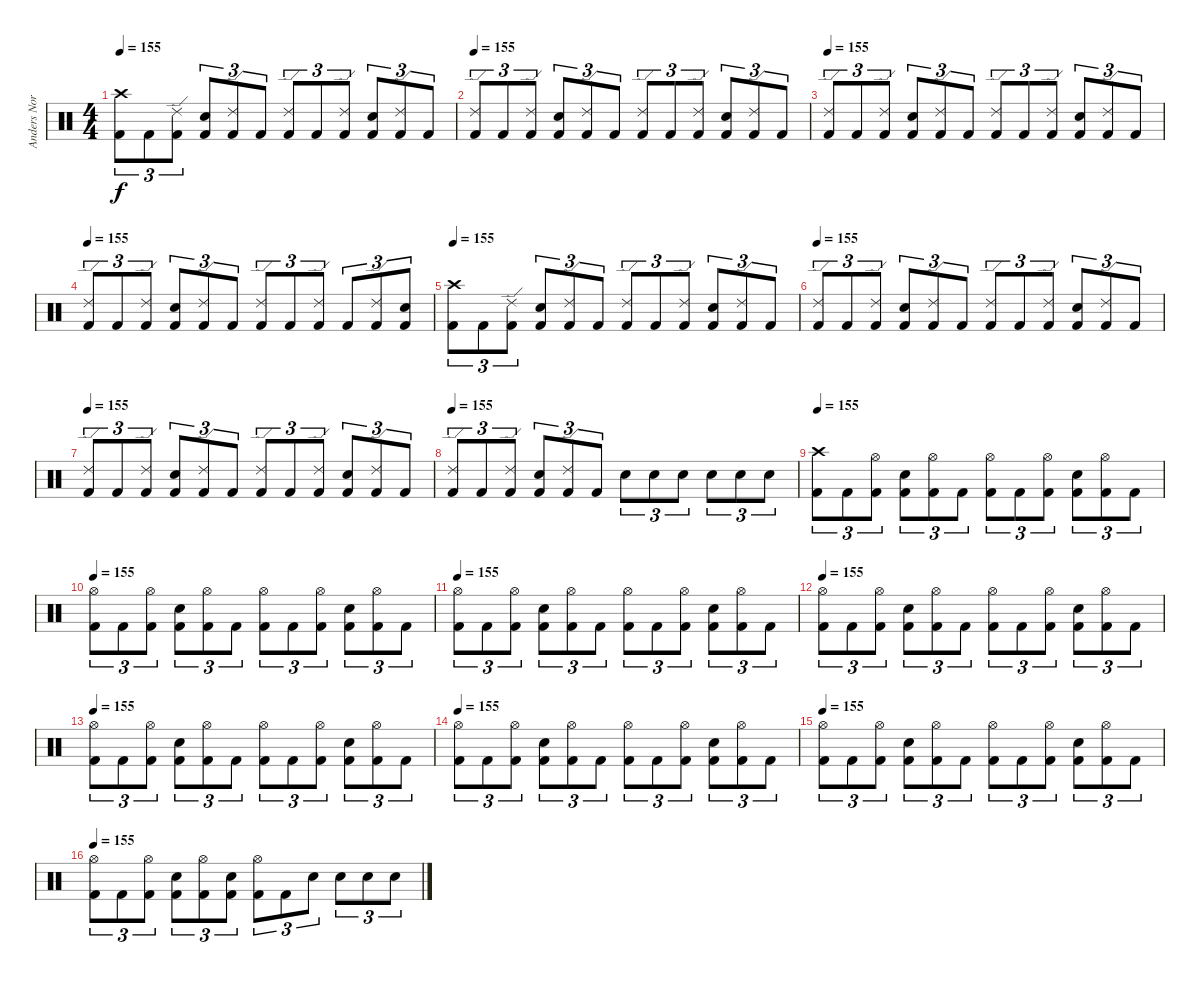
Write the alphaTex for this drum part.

\track ("Anders Nordin" "Anders Nor") {instrument percussion}
\staff {score}
\articulation defaults
\ts (4 4)
\tempo 155
\clef neutral
\ks c
("Kick (hit) 2" "Crash high (hit)").8{tu (3 2) dy f} "Kick (hit) 2".8{tu (3 2)} ("Kick (hit) 2" "Ride (edge) 2").8{tu (3 2)} ("Kick (hit) 2" "Electric Snare (hit)").8{tu (3 2)} ("Kick (hit) 2" "Ride (edge) 2").8{tu (3 2)} "Kick (hit) 2".8{tu (3 2)} ("Kick (hit) 2" "Ride (edge) 2").8{tu (3 2)} "Kick (hit) 2".8{tu (3 2)} ("Kick (hit) 2" "Ride (edge) 2").8{tu (3 2)} ("Kick (hit) 2" "Electric Snare (hit)").8{tu (3 2)} ("Kick (hit) 2" "Ride (edge) 2").8{tu (3 2)} "Kick (hit) 2".8{tu (3 2)} |
\tempo 155
("Kick (hit) 2" "Ride (edge) 2").8{tu (3 2)} "Kick (hit) 2".8{tu (3 2)} ("Kick (hit) 2" "Ride (edge) 2").8{tu (3 2)} ("Kick (hit) 2" "Electric Snare (hit)").8{tu (3 2)} ("Kick (hit) 2" "Ride (edge) 2").8{tu (3 2)} "Kick (hit) 2".8{tu (3 2)} ("Kick (hit) 2" "Ride (edge) 2").8{tu (3 2)} "Kick (hit) 2".8{tu (3 2)} ("Kick (hit) 2" "Ride (edge) 2").8{tu (3 2)} ("Kick (hit) 2" "Electric Snare (hit)").8{tu (3 2)} ("Kick (hit) 2" "Ride (edge) 2").8{tu (3 2)} "Kick (hit) 2".8{tu (3 2)} |
\tempo 155
("Kick (hit) 2" "Ride (edge) 2").8{tu (3 2)} "Kick (hit) 2".8{tu (3 2)} ("Kick (hit) 2" "Ride (edge) 2").8{tu (3 2)} ("Kick (hit) 2" "Electric Snare (hit)").8{tu (3 2)} ("Kick (hit) 2" "Ride (edge) 2").8{tu (3 2)} "Kick (hit) 2".8{tu (3 2)} ("Kick (hit) 2" "Ride (edge) 2").8{tu (3 2)} "Kick (hit) 2".8{tu (3 2)} ("Kick (hit) 2" "Ride (edge) 2").8{tu (3 2)} ("Kick (hit) 2" "Electric Snare (hit)").8{tu (3 2)} ("Kick (hit) 2" "Ride (edge) 2").8{tu (3 2)} "Kick (hit) 2".8{tu (3 2)} |
\tempo 155
("Kick (hit) 2" "Ride (edge) 2").8{tu (3 2)} "Kick (hit) 2".8{tu (3 2)} ("Kick (hit) 2" "Ride (edge) 2").8{tu (3 2)} ("Kick (hit) 2" "Electric Snare (hit)").8{tu (3 2)} ("Kick (hit) 2" "Ride (edge) 2").8{tu (3 2)} "Kick (hit) 2".8{tu (3 2)} ("Kick (hit) 2" "Ride (edge) 2").8{tu (3 2)} "Kick (hit) 2".8{tu (3 2)} ("Kick (hit) 2" "Ride (edge) 2").8{tu (3 2)} "Kick (hit) 2".8{tu (3 2)} ("Kick (hit) 2" "Ride (edge) 2").8{tu (3 2)} ("Kick (hit) 2" "Electric Snare (hit)").8{tu (3 2)} |
\tempo 155
("Kick (hit) 2" "Crash high (hit)").8{tu (3 2)} "Kick (hit) 2".8{tu (3 2)} ("Kick (hit) 2" "Ride (edge) 2").8{tu (3 2)} ("Kick (hit) 2" "Electric Snare (hit)").8{tu (3 2)} ("Kick (hit) 2" "Ride (edge) 2").8{tu (3 2)} "Kick (hit) 2".8{tu (3 2)} ("Kick (hit) 2" "Ride (edge) 2").8{tu (3 2)} "Kick (hit) 2".8{tu (3 2)} ("Kick (hit) 2" "Ride (edge) 2").8{tu (3 2)} ("Kick (hit) 2" "Electric Snare (hit)").8{tu (3 2)} ("Kick (hit) 2" "Ride (edge) 2").8{tu (3 2)} "Kick (hit) 2".8{tu (3 2)} |
\tempo 155
("Kick (hit) 2" "Ride (edge) 2").8{tu (3 2)} "Kick (hit) 2".8{tu (3 2)} ("Kick (hit) 2" "Ride (edge) 2").8{tu (3 2)} ("Kick (hit) 2" "Electric Snare (hit)").8{tu (3 2)} ("Kick (hit) 2" "Ride (edge) 2").8{tu (3 2)} "Kick (hit) 2".8{tu (3 2)} ("Kick (hit) 2" "Ride (edge) 2").8{tu (3 2)} "Kick (hit) 2".8{tu (3 2)} ("Kick (hit) 2" "Ride (edge) 2").8{tu (3 2)} ("Kick (hit) 2" "Electric Snare (hit)").8{tu (3 2)} ("Kick (hit) 2" "Ride (edge) 2").8{tu (3 2)} "Kick (hit) 2".8{tu (3 2)} |
\tempo 155
("Kick (hit) 2" "Ride (edge) 2").8{tu (3 2)} "Kick (hit) 2".8{tu (3 2)} ("Kick (hit) 2" "Ride (edge) 2").8{tu (3 2)} ("Kick (hit) 2" "Electric Snare (hit)").8{tu (3 2)} ("Kick (hit) 2" "Ride (edge) 2").8{tu (3 2)} "Kick (hit) 2".8{tu (3 2)} ("Kick (hit) 2" "Ride (edge) 2").8{tu (3 2)} "Kick (hit) 2".8{tu (3 2)} ("Kick (hit) 2" "Ride (edge) 2").8{tu (3 2)} ("Kick (hit) 2" "Electric Snare (hit)").8{tu (3 2)} ("Kick (hit) 2" "Ride (edge) 2").8{tu (3 2)} "Kick (hit) 2".8{tu (3 2)} |
\tempo 155
("Kick (hit) 2" "Ride (edge) 2").8{tu (3 2)} "Kick (hit) 2".8{tu (3 2)} ("Kick (hit) 2" "Ride (edge) 2").8{tu (3 2)} ("Kick (hit) 2" "Electric Snare (hit)").8{tu (3 2)} ("Kick (hit) 2" "Ride (edge) 2").8{tu (3 2)} "Kick (hit) 2".8{tu (3 2)} "Electric Snare (hit)".8{tu (3 2)} "Electric Snare (hit)".8{tu (3 2)} "Electric Snare (hit)".8{tu (3 2)} "Electric Snare (hit)".8{tu (3 2)} "Electric Snare (hit)".8{tu (3 2)} "Electric Snare (hit)".8{tu (3 2)} |
\tempo 155
("Kick (hit) 2" "Crash high (hit)").8{tu (3 2)} "Kick (hit) 2".8{tu (3 2)} ("Kick (hit) 2" "Hi-Hat (open)").8{tu (3 2)} ("Kick (hit) 2" "Electric Snare (hit)").8{tu (3 2)} ("Kick (hit) 2" "Hi-Hat (open)").8{tu (3 2)} "Kick (hit) 2".8{tu (3 2)} ("Kick (hit) 2" "Hi-Hat (open)").8{tu (3 2)} "Kick (hit) 2".8{tu (3 2)} ("Kick (hit) 2" "Hi-Hat (open)").8{tu (3 2)} ("Kick (hit) 2" "Electric Snare (hit)").8{tu (3 2)} ("Kick (hit) 2" "Hi-Hat (open)").8{tu (3 2)} "Kick (hit) 2".8{tu (3 2)} |
\tempo 155
("Kick (hit) 2" "Hi-Hat (open)").8{tu (3 2)} "Kick (hit) 2".8{tu (3 2)} ("Kick (hit) 2" "Hi-Hat (open)").8{tu (3 2)} ("Kick (hit) 2" "Electric Snare (hit)").8{tu (3 2)} ("Kick (hit) 2" "Hi-Hat (open)").8{tu (3 2)} "Kick (hit) 2".8{tu (3 2)} ("Kick (hit) 2" "Hi-Hat (open)").8{tu (3 2)} "Kick (hit) 2".8{tu (3 2)} ("Kick (hit) 2" "Hi-Hat (open)").8{tu (3 2)} ("Kick (hit) 2" "Electric Snare (hit)").8{tu (3 2)} ("Kick (hit) 2" "Hi-Hat (open)").8{tu (3 2)} "Kick (hit) 2".8{tu (3 2)} |
\tempo 155
("Kick (hit) 2" "Hi-Hat (open)").8{tu (3 2)} "Kick (hit) 2".8{tu (3 2)} ("Kick (hit) 2" "Hi-Hat (open)").8{tu (3 2)} ("Kick (hit) 2" "Electric Snare (hit)").8{tu (3 2)} ("Kick (hit) 2" "Hi-Hat (open)").8{tu (3 2)} "Kick (hit) 2".8{tu (3 2)} ("Kick (hit) 2" "Hi-Hat (open)").8{tu (3 2)} "Kick (hit) 2".8{tu (3 2)} ("Kick (hit) 2" "Hi-Hat (open)").8{tu (3 2)} ("Kick (hit) 2" "Electric Snare (hit)").8{tu (3 2)} ("Kick (hit) 2" "Hi-Hat (open)").8{tu (3 2)} "Kick (hit) 2".8{tu (3 2)} |
\tempo 155
("Kick (hit) 2" "Hi-Hat (open)").8{tu (3 2)} "Kick (hit) 2".8{tu (3 2)} ("Kick (hit) 2" "Hi-Hat (open)").8{tu (3 2)} ("Kick (hit) 2" "Electric Snare (hit)").8{tu (3 2)} ("Kick (hit) 2" "Hi-Hat (open)").8{tu (3 2)} "Kick (hit) 2".8{tu (3 2)} ("Kick (hit) 2" "Hi-Hat (open)").8{tu (3 2)} "Kick (hit) 2".8{tu (3 2)} ("Kick (hit) 2" "Hi-Hat (open)").8{tu (3 2)} ("Kick (hit) 2" "Electric Snare (hit)").8{tu (3 2)} ("Kick (hit) 2" "Hi-Hat (open)").8{tu (3 2)} "Kick (hit) 2".8{tu (3 2)} |
\tempo 155
("Kick (hit) 2" "Hi-Hat (open)").8{tu (3 2)} "Kick (hit) 2".8{tu (3 2)} ("Kick (hit) 2" "Hi-Hat (open)").8{tu (3 2)} ("Kick (hit) 2" "Electric Snare (hit)").8{tu (3 2)} ("Kick (hit) 2" "Hi-Hat (open)").8{tu (3 2)} "Kick (hit) 2".8{tu (3 2)} ("Kick (hit) 2" "Hi-Hat (open)").8{tu (3 2)} "Kick (hit) 2".8{tu (3 2)} ("Kick (hit) 2" "Hi-Hat (open)").8{tu (3 2)} ("Kick (hit) 2" "Electric Snare (hit)").8{tu (3 2)} ("Kick (hit) 2" "Hi-Hat (open)").8{tu (3 2)} "Kick (hit) 2".8{tu (3 2)} |
\tempo 155
("Kick (hit) 2" "Hi-Hat (open)").8{tu (3 2)} "Kick (hit) 2".8{tu (3 2)} ("Kick (hit) 2" "Hi-Hat (open)").8{tu (3 2)} ("Kick (hit) 2" "Electric Snare (hit)").8{tu (3 2)} ("Kick (hit) 2" "Hi-Hat (open)").8{tu (3 2)} "Kick (hit) 2".8{tu (3 2)} ("Kick (hit) 2" "Hi-Hat (open)").8{tu (3 2)} "Kick (hit) 2".8{tu (3 2)} ("Kick (hit) 2" "Hi-Hat (open)").8{tu (3 2)} ("Kick (hit) 2" "Electric Snare (hit)").8{tu (3 2)} ("Kick (hit) 2" "Hi-Hat (open)").8{tu (3 2)} "Kick (hit) 2".8{tu (3 2)} |
\tempo 155
("Kick (hit) 2" "Hi-Hat (open)").8{tu (3 2)} "Kick (hit) 2".8{tu (3 2)} ("Kick (hit) 2" "Hi-Hat (open)").8{tu (3 2)} ("Kick (hit) 2" "Electric Snare (hit)").8{tu (3 2)} ("Kick (hit) 2" "Hi-Hat (open)").8{tu (3 2)} "Kick (hit) 2".8{tu (3 2)} ("Kick (hit) 2" "Hi-Hat (open)").8{tu (3 2)} "Kick (hit) 2".8{tu (3 2)} ("Kick (hit) 2" "Hi-Hat (open)").8{tu (3 2)} ("Kick (hit) 2" "Electric Snare (hit)").8{tu (3 2)} ("Kick (hit) 2" "Hi-Hat (open)").8{tu (3 2)} "Kick (hit) 2".8{tu (3 2)} |
\tempo 155
("Kick (hit) 2" "Hi-Hat (open)").8{tu (3 2)} "Kick (hit) 2".8{tu (3 2)} ("Kick (hit) 2" "Hi-Hat (open)").8{tu (3 2)} ("Kick (hit) 2" "Electric Snare (hit)").8{tu (3 2)} ("Kick (hit) 2" "Hi-Hat (open)").8{tu (3 2)} ("Kick (hit) 2" "Electric Snare (hit)").8{tu (3 2)} ("Kick (hit) 2" "Hi-Hat (open)").8{tu (3 2)} "Kick (hit) 2".8{tu (3 2)} "Electric Snare (hit)".8{tu (3 2)} "Electric Snare (hit)".8{tu (3 2)} "Electric Snare (hit)".8{tu (3 2)} "Electric Snare (hit)".8{tu (3 2)}
